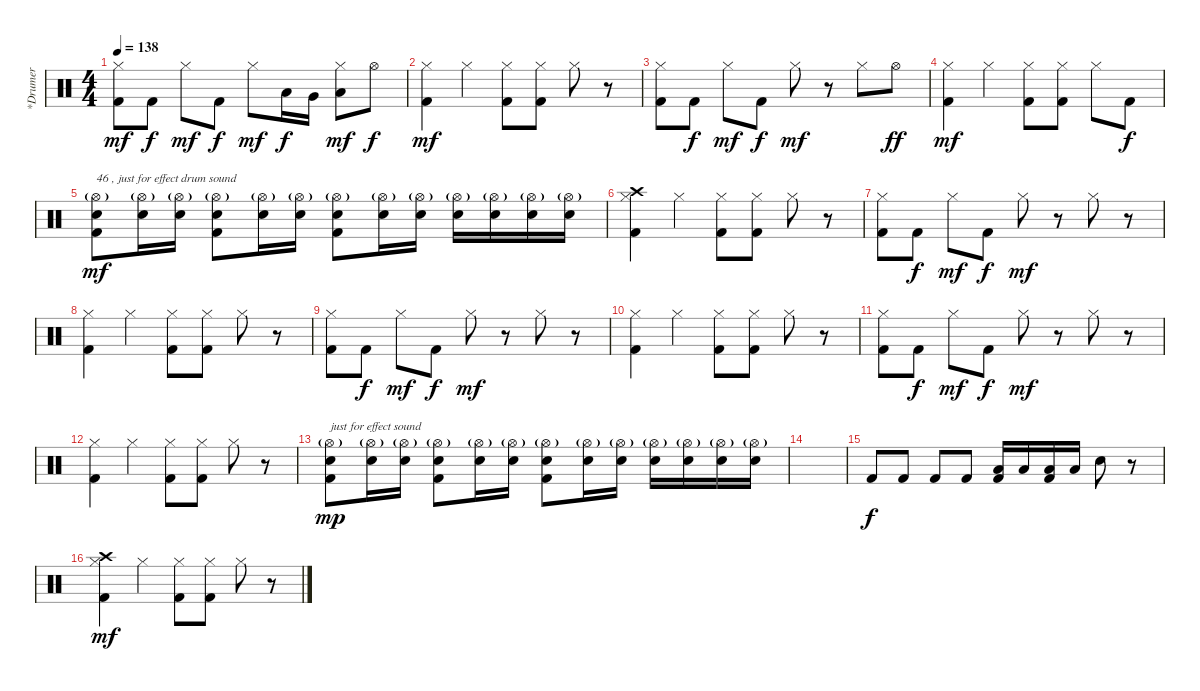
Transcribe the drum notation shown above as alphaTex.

\track ("*Drumer" "*Drumer") {instrument percussion}
\staff {score}
\articulation defaults
\ts (4 4)
\tempo 138
\clef neutral
\ks c
("Hi-Hat (closed)" "Kick (hit) 2").8{dy mf} "Kick (hit) 2".8{dy f} "Hi-Hat (closed)".8{dy mf} "Kick (hit) 2".8{dy f} "Hi-Hat (closed)".8{dy mf} "Low Tom (hit)".16{dy f} "Very Low Tom (hit)".16 ("Hi-Hat (closed)" "Low Floor Tom (hit)").8{dy mf} "Hi-Hat (open)".8{dy f} |
("Hi-Hat (closed)" "Kick (hit) 2").4{dy mf} "Hi-Hat (closed)".4 ("Hi-Hat (closed)" "Kick (hit) 2").8 ("Hi-Hat (closed)" "Kick (hit) 2").8 "Hi-Hat (closed)".8 r.8 |
("Hi-Hat (closed)" "Kick (hit) 2").8 "Kick (hit) 2".8{dy f} "Hi-Hat (closed)".8{dy mf} "Kick (hit) 2".8{dy f} "Hi-Hat (closed)".8{dy mf} r.8 "Hi-Hat (closed)".8 "Hi-Hat (open)".8{dy ff} |
("Hi-Hat (closed)" "Kick (hit) 2").4{dy mf} "Hi-Hat (closed)".4 ("Hi-Hat (closed)" "Kick (hit) 2").8 ("Hi-Hat (closed)" "Kick (hit) 2").8 "Hi-Hat (closed)".8 "Kick (hit) 2".8{dy f} |
("Hi-Hat (open)"{g} "Electric Snare (hit)" "Kick (hit) 2").8{txt "46 , just for effect drum sound" dy mf} ("Hi-Hat (open)"{g} "Electric Snare (hit)").16 ("Hi-Hat (open)"{g} "Electric Snare (hit)").16 ("Hi-Hat (open)"{g} "Electric Snare (hit)" "Kick (hit) 2").8 ("Hi-Hat (open)"{g} "Electric Snare (hit)").16 ("Hi-Hat (open)"{g} "Electric Snare (hit)").16 ("Hi-Hat (open)"{g} "Electric Snare (hit)" "Kick (hit) 2").8 ("Hi-Hat (open)"{g} "Electric Snare (hit)").16 ("Hi-Hat (open)"{g} "Electric Snare (hit)").16 ("Hi-Hat (open)"{g} "Electric Snare (hit)").16 ("Hi-Hat (open)"{g} "Electric Snare (hit)").16 ("Hi-Hat (open)"{g} "Electric Snare (hit)").16 ("Hi-Hat (open)"{g} "Electric Snare (hit)").16 |
("Crash high (hit)" "Hi-Hat (closed)" "Kick (hit) 2").4 "Hi-Hat (closed)".4 ("Hi-Hat (closed)" "Kick (hit) 2").8 ("Hi-Hat (closed)" "Kick (hit) 2").8 "Hi-Hat (closed)".8 r.8 |
("Hi-Hat (closed)" "Kick (hit) 2").8 "Kick (hit) 2".8{dy f} "Hi-Hat (closed)".8{dy mf} "Kick (hit) 2".8{dy f} "Hi-Hat (closed)".8{dy mf} r.8 "Hi-Hat (closed)".8 r.8 |
("Hi-Hat (closed)" "Kick (hit) 2").4 "Hi-Hat (closed)".4 ("Hi-Hat (closed)" "Kick (hit) 2").8 ("Hi-Hat (closed)" "Kick (hit) 2").8 "Hi-Hat (closed)".8 r.8 |
("Hi-Hat (closed)" "Kick (hit) 2").8 "Kick (hit) 2".8{dy f} "Hi-Hat (closed)".8{dy mf} "Kick (hit) 2".8{dy f} "Hi-Hat (closed)".8{dy mf} r.8 "Hi-Hat (closed)".8 r.8 |
("Hi-Hat (closed)" "Kick (hit) 2").4 "Hi-Hat (closed)".4 ("Hi-Hat (closed)" "Kick (hit) 2").8 ("Hi-Hat (closed)" "Kick (hit) 2").8 "Hi-Hat (closed)".8 r.8 |
("Hi-Hat (closed)" "Kick (hit) 2").8 "Kick (hit) 2".8{dy f} "Hi-Hat (closed)".8{dy mf} "Kick (hit) 2".8{dy f} "Hi-Hat (closed)".8{dy mf} r.8 "Hi-Hat (closed)".8 r.8 |
("Hi-Hat (closed)" "Kick (hit) 2").4 "Hi-Hat (closed)".4 ("Hi-Hat (closed)" "Kick (hit) 2").8 ("Hi-Hat (closed)" "Kick (hit) 2").8 "Hi-Hat (closed)".8 r.8 |
("Hi-Hat (open)"{g} "Electric Snare (hit)" "Kick (hit) 2").8{txt "just for effect sound" dy mp} ("Hi-Hat (open)"{g} "Electric Snare (hit)").16 ("Hi-Hat (open)"{g} "Electric Snare (hit)").16 ("Hi-Hat (open)"{g} "Electric Snare (hit)" "Kick (hit) 2").8 ("Hi-Hat (open)"{g} "Electric Snare (hit)").16 ("Hi-Hat (open)"{g} "Electric Snare (hit)").16 ("Hi-Hat (open)"{g} "Electric Snare (hit)" "Kick (hit) 2").8 ("Hi-Hat (open)"{g} "Electric Snare (hit)").16 ("Hi-Hat (open)"{g} "Electric Snare (hit)").16 ("Hi-Hat (open)"{g} "Electric Snare (hit)").16 ("Hi-Hat (open)"{g} "Electric Snare (hit)").16 ("Hi-Hat (open)"{g} "Electric Snare (hit)").16 ("Hi-Hat (open)"{g} "Electric Snare (hit)").16 |
|
"Kick (hit) 2".8{dy f} "Kick (hit) 2".8 "Kick (hit) 2".8 "Kick (hit) 2".8 ("Low Tom (hit)" "Kick (hit) 2").16 "Low Tom (hit)".16 ("Low Tom (hit)" "Kick (hit) 2").16 "Low Tom (hit)".16 "Electric Snare (hit)".8 r.8 |
("Crash high (hit)" "Hi-Hat (closed)" "Kick (hit) 2").4{dy mf} "Hi-Hat (closed)".4 ("Hi-Hat (closed)" "Kick (hit) 2").8 ("Hi-Hat (closed)" "Kick (hit) 2").8 "Hi-Hat (closed)".8 r.8
